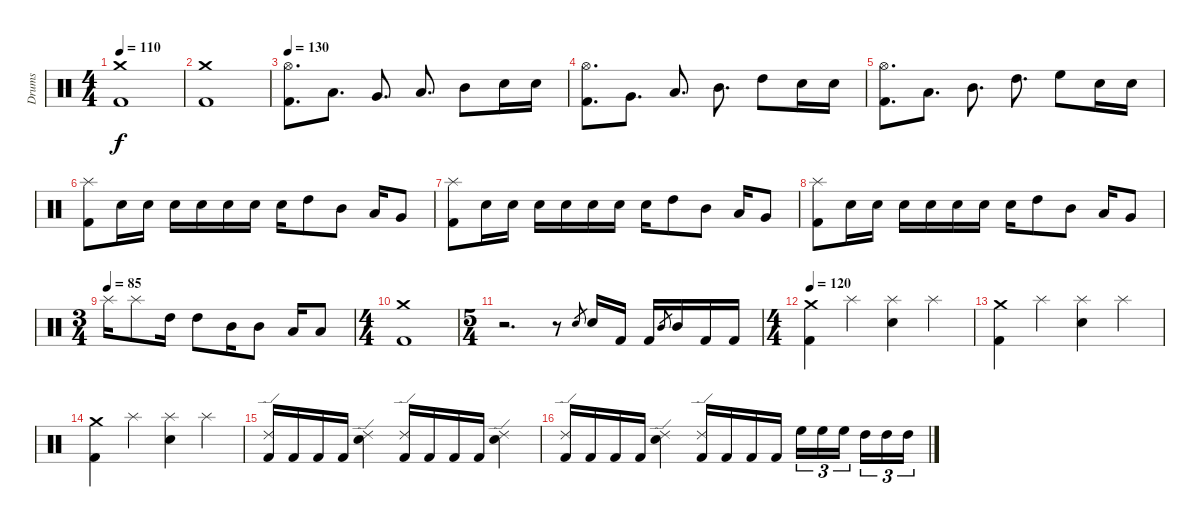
\track ("Drums" "Drums") {instrument percussion}
\staff {score}
\articulation defaults
\ts (4 4)
\tempo 110
\clef neutral
\ks c
("Crash medium (hit)" "Kick (hit) 2").1{dy f} |
("Crash medium (hit)" "Kick (hit) 2").1 |
\tempo 130
("Hi-Hat (open)" "Kick (hit) 2").8{d} "Low Floor Tom (hit)".8{d} "Very Low Tom (hit)".8{d} "Low Tom (hit)".8{d} "Mid Tom (hit)".8 "Snare (hit) 2".16 "Snare (hit) 2".16 |
("Hi-Hat (open)" "Kick (hit) 2").8{d} "Very Low Tom (hit)".8{d} "Low Tom (hit)".8{d} "Mid Tom (hit)".8{d} "High Tom (hit)".8 "Snare (hit) 2".16 "Snare (hit) 2".16 |
("Hi-Hat (open)" "Kick (hit) 2").8{d} "Low Tom (hit)".8{d} "Mid Tom (hit)".8{d} "High Tom (hit)".8{d} "High Floor Tom (hit)".8 "Snare (hit) 2".16 "Snare (hit) 2".16 |
("Splash (hit)" "Kick (hit) 2").8 "Snare (hit) 2".16 "Snare (hit) 2".16 "Snare (hit) 2".16 "Snare (hit) 2".16 "Snare (hit) 2".16 "Snare (hit) 2".16 "Snare (hit) 2".16 "High Tom (hit)".8 "Mid Tom (hit)".8 "Low Tom (hit)".16 "Very Low Tom (hit)".8 |
("Splash (hit)" "Kick (hit) 2").8 "Snare (hit) 2".16 "Snare (hit) 2".16 "Snare (hit) 2".16 "Snare (hit) 2".16 "Snare (hit) 2".16 "Snare (hit) 2".16 "Snare (hit) 2".16 "High Tom (hit)".8 "Mid Tom (hit)".8 "Low Tom (hit)".16 "Very Low Tom (hit)".8 |
("Splash (hit)" "Kick (hit) 2").8 "Snare (hit) 2".16 "Snare (hit) 2".16 "Snare (hit) 2".16 "Snare (hit) 2".16 "Snare (hit) 2".16 "Snare (hit) 2".16 "Snare (hit) 2".16 "High Tom (hit)".8 "Mid Tom (hit)".8 "Low Tom (hit)".16 "Very Low Tom (hit)".8 |
\ts (3 4)
\tempo (85)
"Splash (hit)".16 "Splash (hit)".8 "High Tom (hit)".16 "High Tom (hit)".8 "Mid Tom (hit)".16 "Mid Tom (hit)".8 "Low Tom (hit)".16 "Low Tom (hit)".8 |
\ts (4 4)
("Crash medium (hit)" "Kick (hit) 2").1 |
\ts (5 4)
r.2{d} r.8 "Snare (hit) 2".8{gr} "Snare (hit) 2".16 "Kick (hit) 2".16 "Kick (hit) 2".16 "Mid Tom (hit)".8{gr} "Mid Tom (hit)".16 "Kick (hit) 2".16 "Kick (hit) 2".16 |
\ts (4 4)
\tempo 120
("Crash medium (hit)" "Kick (hit) 2").4 "Splash (hit)".4 ("Splash (hit)" "Snare (hit) 2").4 "Splash (hit)".4 |
("Crash medium (hit)" "Kick (hit) 2").4 "Splash (hit)".4 ("Splash (hit)" "Snare (hit) 2").4 "Splash (hit)".4 |
("Crash medium (hit)" "Kick (hit) 2").4 "Splash (hit)".4 ("Splash (hit)" "Snare (hit) 2").4 "Splash (hit)".4 |
("Ride (edge) 2" "Kick (hit) 2").16 "Kick (hit) 2".16 "Kick (hit) 2".16 "Kick (hit) 2".16 ("Ride (edge) 2" "Snare (hit) 2").4 ("Ride (edge) 2" "Kick (hit) 2").16 "Kick (hit) 2".16 "Kick (hit) 2".16 "Kick (hit) 2".16 ("Ride (edge) 2" "Snare (hit) 2").4 |
("Ride (edge) 2" "Kick (hit) 2").16 "Kick (hit) 2".16 "Kick (hit) 2".16 "Kick (hit) 2".16 ("Ride (edge) 2" "Snare (hit) 2").4 ("Ride (edge) 2" "Kick (hit) 2").16 "Kick (hit) 2".16 "Kick (hit) 2".16 "Kick (hit) 2".16 "High Floor Tom (hit)".16{tu (3 2)} "High Floor Tom (hit)".16{tu (3 2)} "High Floor Tom (hit)".16{tu (3 2) beam splitsecondary} "High Tom (hit)".16{tu (3 2)} "High Tom (hit)".16{tu (3 2)} "High Tom (hit)".16{tu (3 2)}
